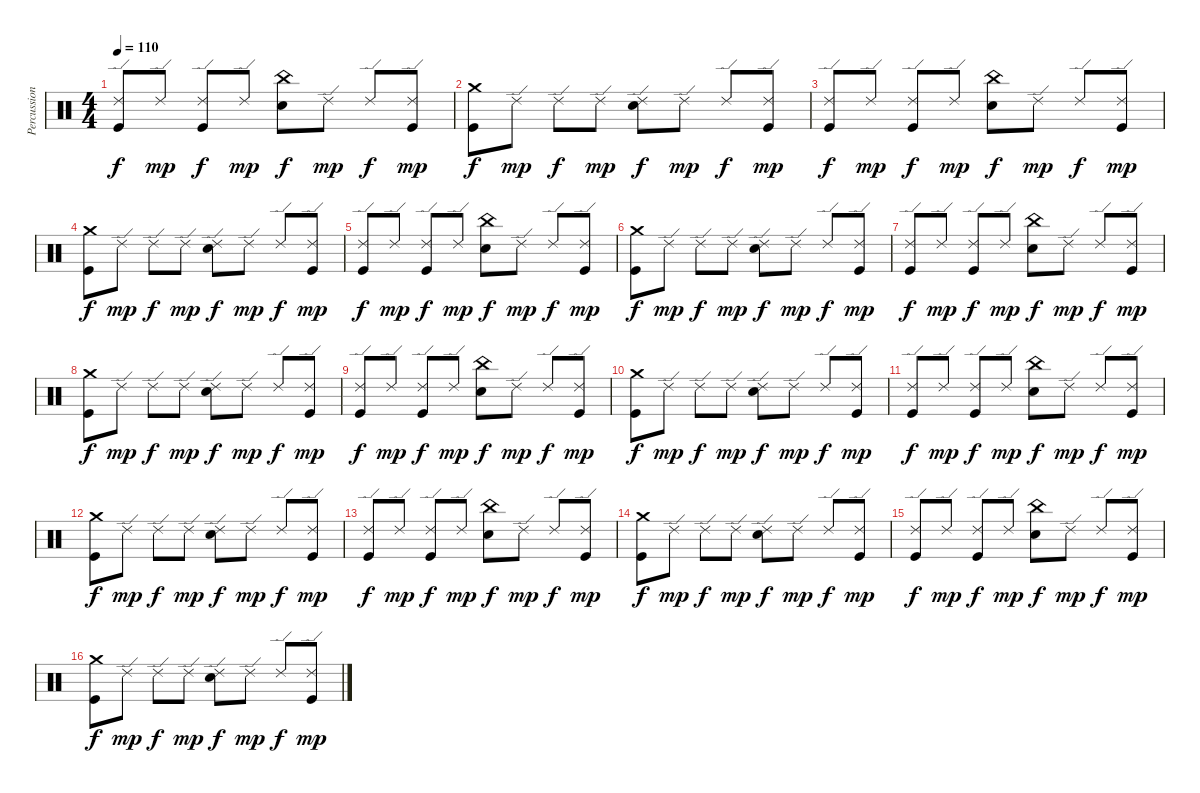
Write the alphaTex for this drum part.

\track ("Percussioni" "Percussion") {instrument percussion}
\staff {score}
\articulation defaults
\ts (4 4)
\tempo 110
\clef neutral
\ks c
("Ride (edge) 2" "Kick (hit)").8{dy f} "Ride (edge) 2".8{dy mp} ("Ride (edge) 2" "Kick (hit)").8{dy f} "Ride (edge) 2".8{dy mp} ("China (hit)" "Electric Snare (hit)").8{dy f} "Ride (edge) 2".8{dy mp} "Ride (edge) 2".8{dy f} ("Ride (edge) 2" "Kick (hit)").8{dy mp} |
("Crash medium (hit)" "Kick (hit)").8{dy f} "Ride (edge) 2".8{dy mp} "Ride (edge) 2".8{dy f} "Ride (edge) 2".8{dy mp} ("Ride (edge) 2" "Electric Snare (hit)").8{dy f} "Ride (edge) 2".8{dy mp} "Ride (edge) 2".8{dy f} ("Ride (edge) 2" "Kick (hit)").8{dy mp} |
("Ride (edge) 2" "Kick (hit)").8{dy f} "Ride (edge) 2".8{dy mp} ("Ride (edge) 2" "Kick (hit)").8{dy f} "Ride (edge) 2".8{dy mp} ("China (hit)" "Electric Snare (hit)").8{dy f} "Ride (edge) 2".8{dy mp} "Ride (edge) 2".8{dy f} ("Ride (edge) 2" "Kick (hit)").8{dy mp} |
("Crash medium (hit)" "Kick (hit)").8{dy f} "Ride (edge) 2".8{dy mp} "Ride (edge) 2".8{dy f} "Ride (edge) 2".8{dy mp} ("Ride (edge) 2" "Electric Snare (hit)").8{dy f} "Ride (edge) 2".8{dy mp} "Ride (edge) 2".8{dy f} ("Ride (edge) 2" "Kick (hit)").8{dy mp} |
("Ride (edge) 2" "Kick (hit)").8{dy f} "Ride (edge) 2".8{dy mp} ("Ride (edge) 2" "Kick (hit)").8{dy f} "Ride (edge) 2".8{dy mp} ("China (hit)" "Electric Snare (hit)").8{dy f} "Ride (edge) 2".8{dy mp} "Ride (edge) 2".8{dy f} ("Ride (edge) 2" "Kick (hit)").8{dy mp} |
("Crash medium (hit)" "Kick (hit)").8{dy f} "Ride (edge) 2".8{dy mp} "Ride (edge) 2".8{dy f} "Ride (edge) 2".8{dy mp} ("Ride (edge) 2" "Electric Snare (hit)").8{dy f} "Ride (edge) 2".8{dy mp} "Ride (edge) 2".8{dy f} ("Ride (edge) 2" "Kick (hit)").8{dy mp} |
("Ride (edge) 2" "Kick (hit)").8{dy f} "Ride (edge) 2".8{dy mp} ("Ride (edge) 2" "Kick (hit)").8{dy f} "Ride (edge) 2".8{dy mp} ("China (hit)" "Electric Snare (hit)").8{dy f} "Ride (edge) 2".8{dy mp} "Ride (edge) 2".8{dy f} ("Ride (edge) 2" "Kick (hit)").8{dy mp} |
("Crash medium (hit)" "Kick (hit)").8{dy f} "Ride (edge) 2".8{dy mp} "Ride (edge) 2".8{dy f} "Ride (edge) 2".8{dy mp} ("Ride (edge) 2" "Electric Snare (hit)").8{dy f} "Ride (edge) 2".8{dy mp} "Ride (edge) 2".8{dy f} ("Ride (edge) 2" "Kick (hit)").8{dy mp} |
("Ride (edge) 2" "Kick (hit)").8{dy f} "Ride (edge) 2".8{dy mp} ("Ride (edge) 2" "Kick (hit)").8{dy f} "Ride (edge) 2".8{dy mp} ("China (hit)" "Electric Snare (hit)").8{dy f} "Ride (edge) 2".8{dy mp} "Ride (edge) 2".8{dy f} ("Ride (edge) 2" "Kick (hit)").8{dy mp} |
("Crash medium (hit)" "Kick (hit)").8{dy f} "Ride (edge) 2".8{dy mp} "Ride (edge) 2".8{dy f} "Ride (edge) 2".8{dy mp} ("Ride (edge) 2" "Electric Snare (hit)").8{dy f} "Ride (edge) 2".8{dy mp} "Ride (edge) 2".8{dy f} ("Ride (edge) 2" "Kick (hit)").8{dy mp} |
("Ride (edge) 2" "Kick (hit)").8{dy f} "Ride (edge) 2".8{dy mp} ("Ride (edge) 2" "Kick (hit)").8{dy f} "Ride (edge) 2".8{dy mp} ("China (hit)" "Electric Snare (hit)").8{dy f} "Ride (edge) 2".8{dy mp} "Ride (edge) 2".8{dy f} ("Ride (edge) 2" "Kick (hit)").8{dy mp} |
("Crash medium (hit)" "Kick (hit)").8{dy f} "Ride (edge) 2".8{dy mp} "Ride (edge) 2".8{dy f} "Ride (edge) 2".8{dy mp} ("Ride (edge) 2" "Electric Snare (hit)").8{dy f} "Ride (edge) 2".8{dy mp} "Ride (edge) 2".8{dy f} ("Ride (edge) 2" "Kick (hit)").8{dy mp} |
("Ride (edge) 2" "Kick (hit)").8{dy f} "Ride (edge) 2".8{dy mp} ("Ride (edge) 2" "Kick (hit)").8{dy f} "Ride (edge) 2".8{dy mp} ("China (hit)" "Electric Snare (hit)").8{dy f} "Ride (edge) 2".8{dy mp} "Ride (edge) 2".8{dy f} ("Ride (edge) 2" "Kick (hit)").8{dy mp} |
("Crash medium (hit)" "Kick (hit)").8{dy f} "Ride (edge) 2".8{dy mp} "Ride (edge) 2".8{dy f} "Ride (edge) 2".8{dy mp} ("Ride (edge) 2" "Electric Snare (hit)").8{dy f} "Ride (edge) 2".8{dy mp} "Ride (edge) 2".8{dy f} ("Ride (edge) 2" "Kick (hit)").8{dy mp} |
("Ride (edge) 2" "Kick (hit)").8{dy f} "Ride (edge) 2".8{dy mp} ("Ride (edge) 2" "Kick (hit)").8{txt "" dy f} "Ride (edge) 2".8{dy mp} ("China (hit)" "Electric Snare (hit)").8{dy f} "Ride (edge) 2".8{dy mp} "Ride (edge) 2".8{dy f} ("Ride (edge) 2" "Kick (hit)").8{dy mp} |
("Crash medium (hit)" "Kick (hit)").8{dy f} "Ride (edge) 2".8{dy mp} "Ride (edge) 2".8{dy f} "Ride (edge) 2".8{dy mp} ("Ride (edge) 2" "Electric Snare (hit)").8{dy f} "Ride (edge) 2".8{dy mp} "Ride (edge) 2".8{dy f} ("Ride (edge) 2" "Kick (hit)").8{dy mp}
